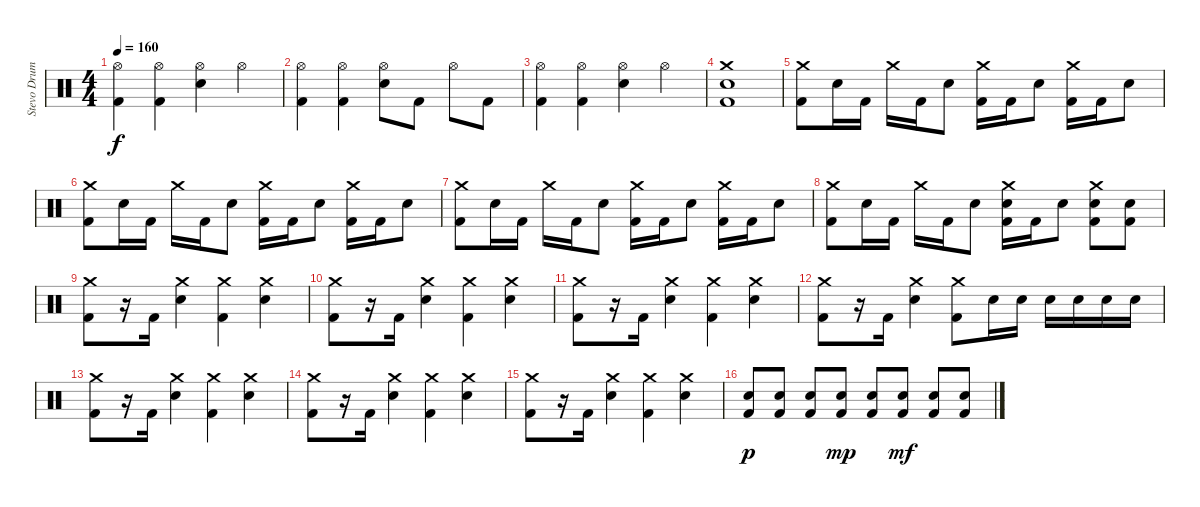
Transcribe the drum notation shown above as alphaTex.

\track ("Stevo Drums" "Stevo Drum") {instrument percussion}
\staff {score}
\articulation defaults
\ts (4 4)
\tempo 160
\clef neutral
\ks c
("Hi-Hat (open)" "Kick (hit) 2").4{dy f} ("Hi-Hat (open)" "Kick (hit) 2").4 ("Electric Snare (hit)" "Hi-Hat (open)").4 "Hi-Hat (open)".4 |
("Hi-Hat (open)" "Kick (hit) 2").4 ("Hi-Hat (open)" "Kick (hit) 2").4 ("Electric Snare (hit)" "Hi-Hat (open)").8 "Kick (hit) 2".8 "Hi-Hat (open)".8 "Kick (hit) 2".8 |
("Hi-Hat (open)" "Kick (hit) 2").4 ("Hi-Hat (open)" "Kick (hit) 2").4 ("Electric Snare (hit)" "Hi-Hat (open)").4 "Hi-Hat (open)".4 |
("Crash medium (hit)" "Electric Snare (hit)" "Kick (hit) 2").1 |
("Crash medium (hit)" "Kick (hit) 2").8 "Electric Snare (hit)".16 "Kick (hit) 2".16 "Crash medium (hit)".16 "Kick (hit) 2".16 "Electric Snare (hit)".8 ("Crash medium (hit)" "Kick (hit) 2").16 "Kick (hit) 2".16 "Electric Snare (hit)".8 ("Crash medium (hit)" "Kick (hit) 2").16 "Kick (hit) 2".16 "Electric Snare (hit)".8 |
("Crash medium (hit)" "Kick (hit) 2").8 "Electric Snare (hit)".16 "Kick (hit) 2".16 "Crash medium (hit)".16 "Kick (hit) 2".16 "Electric Snare (hit)".8 ("Crash medium (hit)" "Kick (hit) 2").16 "Kick (hit) 2".16 "Electric Snare (hit)".8 ("Crash medium (hit)" "Kick (hit) 2").16 "Kick (hit) 2".16 "Electric Snare (hit)".8 |
("Crash medium (hit)" "Kick (hit) 2").8 "Electric Snare (hit)".16 "Kick (hit) 2".16 "Crash medium (hit)".16 "Kick (hit) 2".16 "Electric Snare (hit)".8 ("Crash medium (hit)" "Kick (hit) 2").16 "Kick (hit) 2".16 "Electric Snare (hit)".8 ("Crash medium (hit)" "Kick (hit) 2").16 "Kick (hit) 2".16 "Electric Snare (hit)".8 |
("Crash medium (hit)" "Kick (hit) 2").8 "Electric Snare (hit)".16 "Kick (hit) 2".16 "Crash medium (hit)".16 "Kick (hit) 2".16 "Electric Snare (hit)".8 ("Crash medium (hit)" "Electric Snare (hit)" "Kick (hit) 2").16 "Kick (hit) 2".16 "Electric Snare (hit)".8 ("Crash medium (hit)" "Electric Snare (hit)" "Kick (hit) 2").8 ("Electric Snare (hit)" "Kick (hit) 2").8 |
("Crash medium (hit)" "Kick (hit) 2").8 r.16 "Kick (hit) 2".16 ("Crash medium (hit)" "Electric Snare (hit)").4 ("Crash medium (hit)" "Kick (hit) 2").4 ("Crash medium (hit)" "Electric Snare (hit)").4 |
("Crash medium (hit)" "Kick (hit) 2").8 r.16 "Kick (hit) 2".16 ("Crash medium (hit)" "Electric Snare (hit)").4 ("Crash medium (hit)" "Kick (hit) 2").4 ("Crash medium (hit)" "Electric Snare (hit)").4 |
("Crash medium (hit)" "Kick (hit) 2").8 r.16 "Kick (hit) 2".16 ("Crash medium (hit)" "Electric Snare (hit)").4 ("Crash medium (hit)" "Kick (hit) 2").4 ("Crash medium (hit)" "Electric Snare (hit)").4 |
("Crash medium (hit)" "Kick (hit) 2").8 r.16 "Kick (hit) 2".16 ("Crash medium (hit)" "Electric Snare (hit)").4 ("Crash medium (hit)" "Kick (hit) 2").8 "Electric Snare (hit)".16 "Electric Snare (hit)".16 "Electric Snare (hit)".16 "Electric Snare (hit)".16 "Electric Snare (hit)".16 "Electric Snare (hit)".16 |
("Crash medium (hit)" "Kick (hit) 2").8 r.16 "Kick (hit) 2".16 ("Crash medium (hit)" "Electric Snare (hit)").4 ("Crash medium (hit)" "Kick (hit) 2").4 ("Crash medium (hit)" "Electric Snare (hit)").4 |
("Crash medium (hit)" "Kick (hit) 2").8 r.16 "Kick (hit) 2".16 ("Crash medium (hit)" "Electric Snare (hit)").4 ("Crash medium (hit)" "Kick (hit) 2").4 ("Crash medium (hit)" "Electric Snare (hit)").4 |
("Crash medium (hit)" "Kick (hit) 2").8 r.16 "Kick (hit) 2".16 ("Crash medium (hit)" "Electric Snare (hit)").4 ("Crash medium (hit)" "Kick (hit) 2").4 ("Crash medium (hit)" "Electric Snare (hit)").4 |
("Electric Snare (hit)" "Kick (hit) 2").8{dy p} ("Electric Snare (hit)" "Kick (hit) 2").8 ("Electric Snare (hit)" "Kick (hit) 2").8 ("Electric Snare (hit)" "Kick (hit) 2").8{dy mp} ("Electric Snare (hit)" "Kick (hit) 2").8 ("Electric Snare (hit)" "Kick (hit) 2").8{dy mf} ("Electric Snare (hit)" "Kick (hit) 2").8 ("Electric Snare (hit)" "Kick (hit) 2").8
